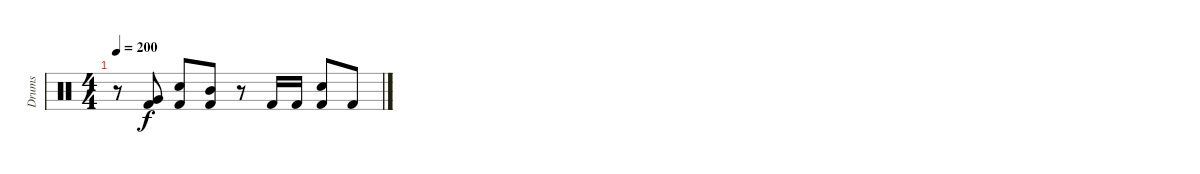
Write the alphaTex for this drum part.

\track ("Drums" "Drums") {instrument percussion}
\staff {score}
\articulation defaults
\ts (4 4)
\tempo 200
\clef neutral
\ks c
r.8{dy f} ("Very Low Tom (hit)" "Kick (hit) 2").8 ("Electric Snare (hit)" "Kick (hit) 2").8 ("Mid Tom (hit)" "Kick (hit) 2").8 r.8 "Kick (hit) 2".16 "Kick (hit) 2".16 ("Electric Snare (hit)" "Kick (hit) 2").8 "Kick (hit) 2".8
